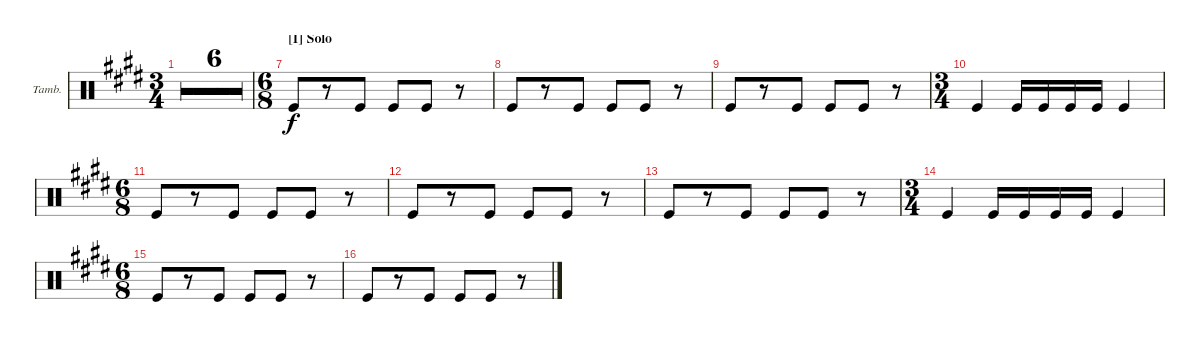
\defaultSystemsLayout 4
\bracketExtendMode groupsimilarinstruments
\firstSystemTrackNameOrientation horizontal
\otherSystemsTrackNameOrientation horizontal
\track ("Tambourine" "Tamb.") {multiBarRest instrument percussion}
\staff {score}
\articulation defaults
\ts (3 4)
\tempo
165.176
\accidentals auto
\clef neutral
\ottava regular
\simile none
\ks e
r.2{d dy f} |
r.2{d} |
r.2{d} |
r.2{d} |
r.2{d} |
r.2{d} |
\ts (6 8)
\section ("I" "Solo")
"Kick (hit)".8 r.8 "Kick (hit)".8 "Kick (hit)".8 "Kick (hit)".8 r.8 |
"Kick (hit)".8 r.8 "Kick (hit)".8 "Kick (hit)".8 "Kick (hit)".8 r.8 |
"Kick (hit)".8 r.8 "Kick (hit)".8 "Kick (hit)".8 "Kick (hit)".8 r.8 |
\ts (3 4)
"Kick (hit)".4 "Kick (hit)".16 "Kick (hit)".16 "Kick (hit)".16 "Kick (hit)".16 "Kick (hit)".4 |
\ts (6 8)
"Kick (hit)".8 r.8 "Kick (hit)".8 "Kick (hit)".8 "Kick (hit)".8 r.8 |
"Kick (hit)".8 r.8 "Kick (hit)".8 "Kick (hit)".8 "Kick (hit)".8 r.8 |
"Kick (hit)".8 r.8 "Kick (hit)".8 "Kick (hit)".8 "Kick (hit)".8 r.8 |
\ts (3 4)
"Kick (hit)".4 "Kick (hit)".16 "Kick (hit)".16 "Kick (hit)".16 "Kick (hit)".16 "Kick (hit)".4 |
\ts (6 8)
"Kick (hit)".8 r.8 "Kick (hit)".8 "Kick (hit)".8 "Kick (hit)".8 r.8 |
"Kick (hit)".8 r.8 "Kick (hit)".8 "Kick (hit)".8 "Kick (hit)".8 r.8
